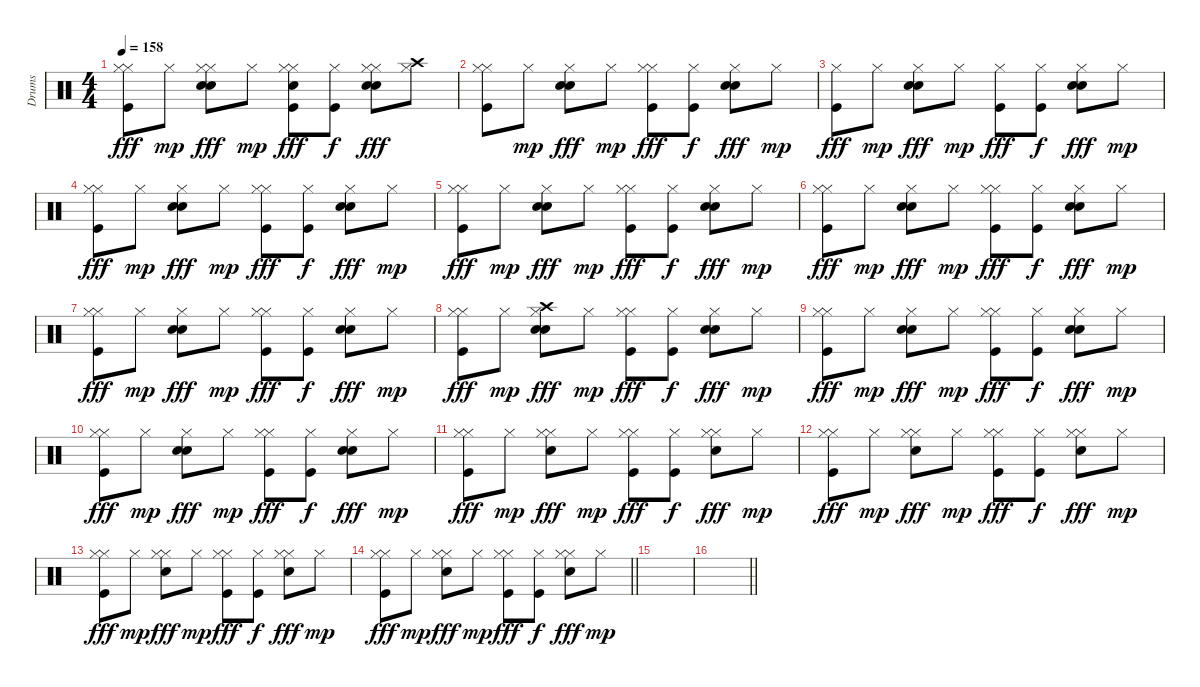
\track ("Drums" "Drums") {instrument percussion}
\staff {score}
\articulation defaults
\ts (4 4)
\tempo 158
\clef neutral
\ks c
("Hi-Hat (closed)" "Kick (hit)" "Hi-Hat (closed)").8{dy fff} "Hi-Hat (closed)".8{dy mp} ("Snare (hit) 2" "Hi-Hat (closed)" "Hi-Hat (closed)" "Electric Snare (hit)").8{dy fff} "Hi-Hat (closed)".8{dy mp} ("Hi-Hat (closed)" "Kick (hit)" "Hi-Hat (closed)" "Electric Snare (hit)").8{dy fff} ("Hi-Hat (closed)" "Kick (hit)").8{dy f} ("Snare (hit) 2" "Hi-Hat (closed)" "Hi-Hat (closed)" "Electric Snare (hit)").8{dy fff} ("Hi-Hat (closed)" "Crash high (hit)").8 |
("Hi-Hat (closed)" "Kick (hit)" "Hi-Hat (closed)").8 "Hi-Hat (closed)".8{dy mp} ("Snare (hit) 2" "Hi-Hat (closed)" "Electric Snare (hit)").8{dy fff} "Hi-Hat (closed)".8{dy mp} ("Hi-Hat (closed)" "Kick (hit)" "Hi-Hat (closed)").8{dy fff} ("Hi-Hat (closed)" "Kick (hit)").8{dy f} ("Snare (hit) 2" "Hi-Hat (closed)" "Electric Snare (hit)").8{dy fff} "Hi-Hat (closed)".8{dy mp} |
("Hi-Hat (closed)" "Kick (hit)").8{dy fff} "Hi-Hat (closed)".8{dy mp} ("Snare (hit) 2" "Hi-Hat (closed)" "Electric Snare (hit)").8{dy fff} "Hi-Hat (closed)".8{dy mp} ("Hi-Hat (closed)" "Kick (hit)").8{dy fff} ("Hi-Hat (closed)" "Kick (hit)").8{dy f} ("Snare (hit) 2" "Hi-Hat (closed)" "Electric Snare (hit)").8{dy fff} "Hi-Hat (closed)".8{dy mp} |
("Hi-Hat (closed)" "Kick (hit)" "Hi-Hat (closed)").8{dy fff} "Hi-Hat (closed)".8{dy mp} ("Snare (hit) 2" "Hi-Hat (closed)" "Electric Snare (hit)").8{dy fff} "Hi-Hat (closed)".8{dy mp} ("Hi-Hat (closed)" "Kick (hit)" "Hi-Hat (closed)").8{dy fff} ("Hi-Hat (closed)" "Kick (hit)").8{dy f} ("Snare (hit) 2" "Hi-Hat (closed)" "Electric Snare (hit)").8{dy fff} "Hi-Hat (closed)".8{dy mp} |
("Hi-Hat (closed)" "Kick (hit)" "Hi-Hat (closed)").8{dy fff} "Hi-Hat (closed)".8{dy mp} ("Snare (hit) 2" "Hi-Hat (closed)" "Electric Snare (hit)").8{dy fff} "Hi-Hat (closed)".8{dy mp} ("Hi-Hat (closed)" "Kick (hit)" "Hi-Hat (closed)").8{dy fff} ("Hi-Hat (closed)" "Kick (hit)").8{dy f} ("Snare (hit) 2" "Hi-Hat (closed)" "Electric Snare (hit)").8{dy fff} "Hi-Hat (closed)".8{dy mp} |
("Hi-Hat (closed)" "Kick (hit)" "Hi-Hat (closed)").8{dy fff} "Hi-Hat (closed)".8{dy mp} ("Snare (hit) 2" "Hi-Hat (closed)" "Electric Snare (hit)").8{dy fff} "Hi-Hat (closed)".8{dy mp} ("Hi-Hat (closed)" "Kick (hit)" "Hi-Hat (closed)").8{dy fff} ("Hi-Hat (closed)" "Kick (hit)").8{dy f} ("Snare (hit) 2" "Hi-Hat (closed)" "Electric Snare (hit)").8{dy fff} "Hi-Hat (closed)".8{dy mp} |
("Hi-Hat (closed)" "Kick (hit)" "Hi-Hat (closed)").8{dy fff} "Hi-Hat (closed)".8{dy mp} ("Snare (hit) 2" "Hi-Hat (closed)" "Electric Snare (hit)").8{dy fff} "Hi-Hat (closed)".8{dy mp} ("Hi-Hat (closed)" "Kick (hit)" "Hi-Hat (closed)").8{dy fff} ("Hi-Hat (closed)" "Kick (hit)").8{dy f} ("Snare (hit) 2" "Hi-Hat (closed)" "Electric Snare (hit)").8{dy fff} "Hi-Hat (closed)".8{dy mp} |
("Hi-Hat (closed)" "Kick (hit)" "Hi-Hat (closed)").8{dy fff} "Hi-Hat (closed)".8{dy mp} ("Snare (hit) 2" "Hi-Hat (closed)" "Electric Snare (hit)" "Crash high (hit)").8{dy fff} "Hi-Hat (closed)".8{dy mp} ("Hi-Hat (closed)" "Kick (hit)" "Hi-Hat (closed)").8{dy fff} ("Hi-Hat (closed)" "Kick (hit)").8{dy f} ("Snare (hit) 2" "Hi-Hat (closed)" "Electric Snare (hit)").8{dy fff} "Hi-Hat (closed)".8{dy mp} |
("Hi-Hat (closed)" "Kick (hit)" "Hi-Hat (closed)").8{dy fff} "Hi-Hat (closed)".8{dy mp} ("Snare (hit) 2" "Hi-Hat (closed)" "Electric Snare (hit)").8{dy fff} "Hi-Hat (closed)".8{dy mp} ("Hi-Hat (closed)" "Kick (hit)" "Hi-Hat (closed)").8{dy fff} ("Hi-Hat (closed)" "Kick (hit)").8{dy f} ("Snare (hit) 2" "Hi-Hat (closed)" "Electric Snare (hit)").8{dy fff} "Hi-Hat (closed)".8{dy mp} |
("Hi-Hat (closed)" "Kick (hit)" "Hi-Hat (closed)").8{dy fff} "Hi-Hat (closed)".8{dy mp} ("Snare (hit) 2" "Hi-Hat (closed)" "Electric Snare (hit)").8{dy fff} "Hi-Hat (closed)".8{dy mp} ("Hi-Hat (closed)" "Kick (hit)" "Hi-Hat (closed)").8{dy fff} ("Hi-Hat (closed)" "Kick (hit)").8{dy f} ("Snare (hit) 2" "Hi-Hat (closed)" "Electric Snare (hit)").8{dy fff} "Hi-Hat (closed)".8{dy mp} |
("Hi-Hat (closed)" "Kick (hit)" "Hi-Hat (closed)").8{dy fff} "Hi-Hat (closed)".8{dy mp} ("Snare (hit) 2" "Hi-Hat (closed)" "Hi-Hat (closed)").8{dy fff} "Hi-Hat (closed)".8{dy mp} ("Hi-Hat (closed)" "Kick (hit)" "Hi-Hat (closed)").8{dy fff} ("Hi-Hat (closed)" "Kick (hit)").8{dy f} ("Snare (hit) 2" "Hi-Hat (closed)" "Hi-Hat (closed)").8{dy fff} "Hi-Hat (closed)".8{dy mp} |
("Hi-Hat (closed)" "Kick (hit)" "Hi-Hat (closed)").8{dy fff} "Hi-Hat (closed)".8{dy mp} ("Snare (hit) 2" "Hi-Hat (closed)" "Hi-Hat (closed)").8{dy fff} "Hi-Hat (closed)".8{dy mp} ("Hi-Hat (closed)" "Kick (hit)" "Hi-Hat (closed)").8{dy fff} ("Hi-Hat (closed)" "Kick (hit)").8{dy f} ("Snare (hit) 2" "Hi-Hat (closed)" "Hi-Hat (closed)").8{dy fff} "Hi-Hat (closed)".8{dy mp} |
("Hi-Hat (closed)" "Kick (hit)" "Hi-Hat (closed)").8{dy fff} "Hi-Hat (closed)".8{dy mp} ("Snare (hit) 2" "Hi-Hat (closed)" "Hi-Hat (closed)").8{dy fff} "Hi-Hat (closed)".8{dy mp} ("Hi-Hat (closed)" "Kick (hit)" "Hi-Hat (closed)").8{dy fff} ("Hi-Hat (closed)" "Kick (hit)").8{dy f} ("Snare (hit) 2" "Hi-Hat (closed)" "Hi-Hat (closed)").8{dy fff} "Hi-Hat (closed)".8{dy mp} |
\barLineRight lightlight
("Hi-Hat (closed)" "Kick (hit)" "Hi-Hat (closed)").8{dy fff} "Hi-Hat (closed)".8{dy mp} ("Snare (hit) 2" "Hi-Hat (closed)" "Hi-Hat (closed)").8{dy fff} "Hi-Hat (closed)".8{dy mp} ("Hi-Hat (closed)" "Kick (hit)" "Hi-Hat (closed)").8{dy fff} ("Hi-Hat (closed)" "Kick (hit)").8{dy f} ("Snare (hit) 2" "Hi-Hat (closed)" "Hi-Hat (closed)").8{dy fff} "Hi-Hat (closed)".8{dy mp} |
|
\barLineRight lightlight
